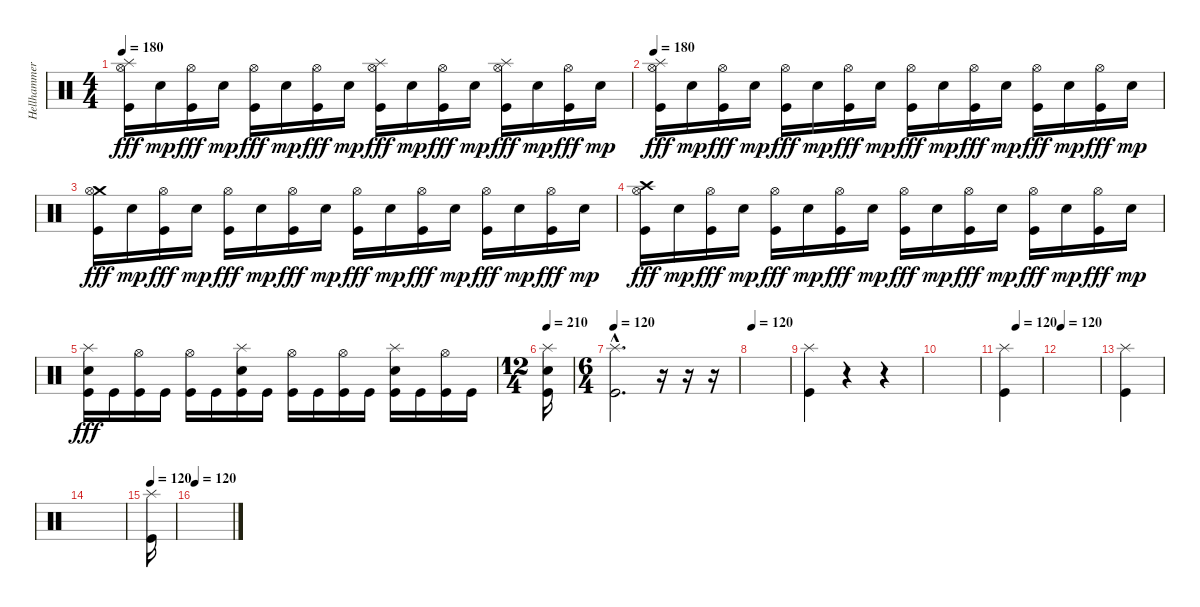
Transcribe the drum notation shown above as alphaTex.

\track ("Hellhammer" "Hellhammer") {instrument percussion}
\staff {score}
\articulation defaults
\ts (4 4)
\tempo 180
\clef neutral
\ks c
("Splash (hit)" "Hi-Hat (open)" "Kick (hit)").16{dy fff} "Electric Snare (hit)".16{dy mp} ("Hi-Hat (open)" "Kick (hit)").16{dy fff} "Electric Snare (hit)".16{dy mp} ("Hi-Hat (open)" "Kick (hit)").16{dy fff} "Electric Snare (hit)".16{dy mp} ("Hi-Hat (open)" "Kick (hit)").16{dy fff} "Electric Snare (hit)".16{dy mp} ("Splash (hit)" "Hi-Hat (open)" "Kick (hit)").16{dy fff} "Electric Snare (hit)".16{dy mp} ("Hi-Hat (open)" "Kick (hit)").16{dy fff} "Electric Snare (hit)".16{dy mp} ("Splash (hit)" "Hi-Hat (open)" "Kick (hit)").16{dy fff} "Electric Snare (hit)".16{dy mp} ("Hi-Hat (open)" "Kick (hit)").16{dy fff} "Electric Snare (hit)".16{dy mp} |
\tempo 180
("Splash (hit)" "Hi-Hat (open)" "Kick (hit)").16{dy fff} "Electric Snare (hit)".16{dy mp} ("Hi-Hat (open)" "Kick (hit)").16{dy fff} "Electric Snare (hit)".16{dy mp} ("Hi-Hat (open)" "Kick (hit)").16{dy fff} "Electric Snare (hit)".16{dy mp} ("Hi-Hat (open)" "Kick (hit)").16{dy fff} "Electric Snare (hit)".16{dy mp} ("Hi-Hat (open)" "Kick (hit)").16{dy fff} "Electric Snare (hit)".16{dy mp} ("Hi-Hat (open)" "Kick (hit)").16{dy fff} "Electric Snare (hit)".16{dy mp} ("Hi-Hat (open)" "Kick (hit)").16{dy fff} "Electric Snare (hit)".16{dy mp} ("Hi-Hat (open)" "Kick (hit)").16{dy fff} "Electric Snare (hit)".16{dy mp} |
("Crash medium (hit)" "Hi-Hat (open)" "Kick (hit)").16{dy fff} "Electric Snare (hit)".16{dy mp} ("Hi-Hat (open)" "Kick (hit)").16{dy fff} "Electric Snare (hit)".16{dy mp} ("Hi-Hat (open)" "Kick (hit)").16{dy fff} "Electric Snare (hit)".16{dy mp} ("Hi-Hat (open)" "Kick (hit)").16{dy fff} "Electric Snare (hit)".16{dy mp} ("Hi-Hat (open)" "Kick (hit)").16{dy fff} "Electric Snare (hit)".16{dy mp} ("Hi-Hat (open)" "Kick (hit)").16{dy fff} "Electric Snare (hit)".16{dy mp} ("Hi-Hat (open)" "Kick (hit)").16{dy fff} "Electric Snare (hit)".16{dy mp} ("Hi-Hat (open)" "Kick (hit)").16{dy fff} "Electric Snare (hit)".16{dy mp} |
("Crash high (hit)" "Hi-Hat (open)" "Kick (hit)").16{dy fff} "Electric Snare (hit)".16{dy mp} ("Hi-Hat (open)" "Kick (hit)").16{dy fff} "Electric Snare (hit)".16{dy mp} ("Hi-Hat (open)" "Kick (hit)").16{dy fff} "Electric Snare (hit)".16{dy mp} ("Hi-Hat (open)" "Kick (hit)").16{dy fff} "Electric Snare (hit)".16{dy mp} ("Hi-Hat (open)" "Kick (hit)").16{dy fff} "Electric Snare (hit)".16{dy mp} ("Hi-Hat (open)" "Kick (hit)").16{dy fff} "Electric Snare (hit)".16{dy mp} ("Hi-Hat (open)" "Kick (hit)").16{dy fff} "Electric Snare (hit)".16{dy mp} ("Hi-Hat (open)" "Kick (hit)").16{dy fff} "Electric Snare (hit)".16{dy mp} |
("Splash (hit)" "Electric Snare (hit)" "Kick (hit)").16{dy fff} "Kick (hit)".16 ("Hi-Hat (open)" "Kick (hit)").16 "Kick (hit)".16 ("Hi-Hat (open)" "Kick (hit)").16 "Kick (hit)".16 ("Splash (hit)" "Electric Snare (hit)" "Kick (hit)").16 "Kick (hit)".16 ("Hi-Hat (open)" "Kick (hit)").16 "Kick (hit)".16 ("Hi-Hat (open)" "Kick (hit)").16 "Kick (hit)".16 ("Splash (hit)" "Electric Snare (hit)" "Kick (hit)").16 "Kick (hit)".16 ("Hi-Hat (open)" "Kick (hit)").16 "Kick (hit)".16 |
\ts (12 4)
\tempo 210
("Splash (hit)" "Electric Snare (hit)" "Kick (hit)").16 |
\ts (6 4)
\tempo 120
("Splash (hit)"{hac} "Kick (hit)"{hac}).2{d} r.16 r.16 r.16 |
\tempo 120
|
("Splash (hit)" "Kick (hit)").4 r.4 r.4 |
|
\tempo (120 0.3333333333333333)
("Splash (hit)" "Kick (hit)").4 |
\tempo 120
|
("Splash (hit)" "Kick (hit)").4 |
|
\tempo 120
("Splash (hit)" "Kick (hit)").16 |
\tempo 120
